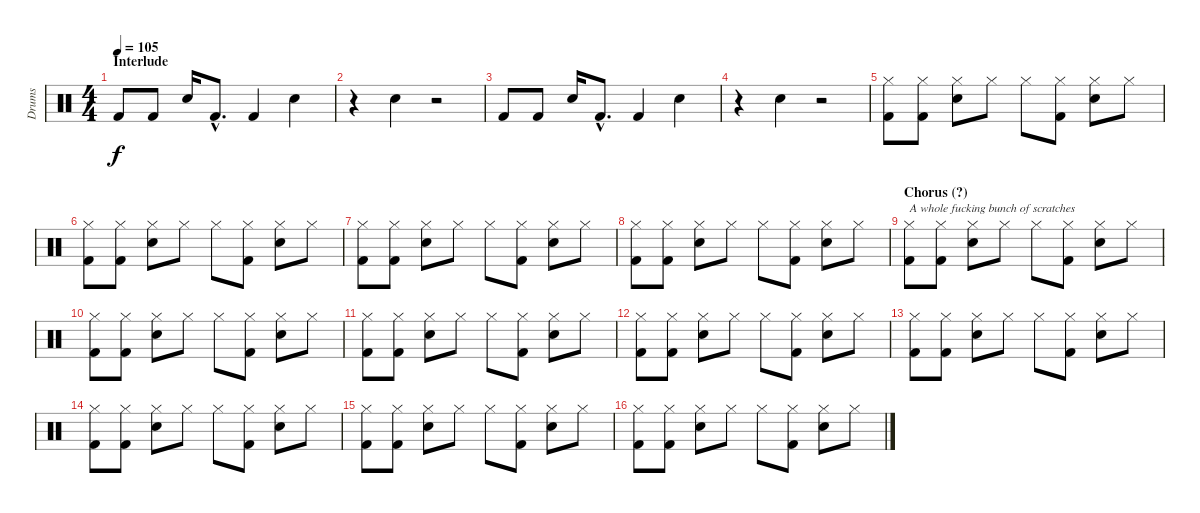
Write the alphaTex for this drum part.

\track ("Drums" "Drums") {instrument percussion}
\staff {score}
\articulation defaults
\ts (4 4)
\section ("" "Interlude")
\tempo 105
\clef neutral
\ks c "Kick (hit) 2".8{dy f} "Kick (hit) 2".8 "Electric Snare (hit)".16 "Kick (hit) 2"{hac}.8{d} "Kick (hit) 2".4 "Electric Snare (hit)".4
|
r.4 "Electric Snare (hit)".4 r.2 |
"Kick (hit) 2".8 "Kick (hit) 2".8 "Electric Snare (hit)".16 "Kick (hit) 2"{hac}.8{d} "Kick (hit) 2".4 "Electric Snare (hit)".4 |
r.4 "Electric Snare (hit)".4 r.2 |
("Hi-Hat (closed)" "Kick (hit) 2").8 ("Hi-Hat (closed)" "Kick (hit) 2").8 ("Hi-Hat (closed)" "Snare (hit) 2").8 "Hi-Hat (closed)".8 "Hi-Hat (closed)".8 ("Hi-Hat (closed)" "Kick (hit) 2").8 ("Hi-Hat (closed)" "Snare (hit) 2").8 "Hi-Hat (closed)".8 |
("Hi-Hat (closed)" "Kick (hit) 2").8 ("Hi-Hat (closed)" "Kick (hit) 2").8 ("Hi-Hat (closed)" "Snare (hit) 2").8 "Hi-Hat (closed)".8 "Hi-Hat (closed)".8 ("Hi-Hat (closed)" "Kick (hit) 2").8 ("Hi-Hat (closed)" "Snare (hit) 2").8 "Hi-Hat (closed)".8 |
("Hi-Hat (closed)" "Kick (hit) 2").8 ("Hi-Hat (closed)" "Kick (hit) 2").8 ("Hi-Hat (closed)" "Snare (hit) 2").8 "Hi-Hat (closed)".8 "Hi-Hat (closed)".8 ("Hi-Hat (closed)" "Kick (hit) 2").8 ("Hi-Hat (closed)" "Snare (hit) 2").8 "Hi-Hat (closed)".8 |
("Hi-Hat (closed)" "Kick (hit) 2").8 ("Hi-Hat (closed)" "Kick (hit) 2").8 ("Hi-Hat (closed)" "Snare (hit) 2").8 "Hi-Hat (closed)".8 "Hi-Hat (closed)".8 ("Hi-Hat (closed)" "Kick (hit) 2").8 ("Hi-Hat (closed)" "Snare (hit) 2").8 "Hi-Hat (closed)".8 |
\section ("" "Chorus (?)")
("Hi-Hat (closed)" "Kick (hit) 2").8{txt "A whole fucking bunch of scratches"} ("Hi-Hat (closed)" "Kick (hit) 2").8 ("Hi-Hat (closed)" "Snare (hit) 2").8 "Hi-Hat (closed)".8 "Hi-Hat (closed)".8 ("Hi-Hat (closed)" "Kick (hit) 2").8 ("Hi-Hat (closed)" "Snare (hit) 2").8 "Hi-Hat (closed)".8 |
("Hi-Hat (closed)" "Kick (hit) 2").8 ("Hi-Hat (closed)" "Kick (hit) 2").8 ("Hi-Hat (closed)" "Snare (hit) 2").8 "Hi-Hat (closed)".8 "Hi-Hat (closed)".8 ("Hi-Hat (closed)" "Kick (hit) 2").8 ("Hi-Hat (closed)" "Snare (hit) 2").8 "Hi-Hat (closed)".8 |
("Hi-Hat (closed)" "Kick (hit) 2").8 ("Hi-Hat (closed)" "Kick (hit) 2").8 ("Hi-Hat (closed)" "Snare (hit) 2").8 "Hi-Hat (closed)".8 "Hi-Hat (closed)".8 ("Hi-Hat (closed)" "Kick (hit) 2").8 ("Hi-Hat (closed)" "Snare (hit) 2").8 "Hi-Hat (closed)".8 |
("Hi-Hat (closed)" "Kick (hit) 2").8 ("Hi-Hat (closed)" "Kick (hit) 2").8 ("Hi-Hat (closed)" "Snare (hit) 2").8 "Hi-Hat (closed)".8 "Hi-Hat (closed)".8 ("Hi-Hat (closed)" "Kick (hit) 2").8 ("Hi-Hat (closed)" "Snare (hit) 2").8 "Hi-Hat (closed)".8 |
("Hi-Hat (closed)" "Kick (hit) 2").8 ("Hi-Hat (closed)" "Kick (hit) 2").8 ("Hi-Hat (closed)" "Snare (hit) 2").8 "Hi-Hat (closed)".8 "Hi-Hat (closed)".8 ("Hi-Hat (closed)" "Kick (hit) 2").8 ("Hi-Hat (closed)" "Snare (hit) 2").8 "Hi-Hat (closed)".8 |
("Hi-Hat (closed)" "Kick (hit) 2").8 ("Hi-Hat (closed)" "Kick (hit) 2").8 ("Hi-Hat (closed)" "Snare (hit) 2").8 "Hi-Hat (closed)".8 "Hi-Hat (closed)".8 ("Hi-Hat (closed)" "Kick (hit) 2").8 ("Hi-Hat (closed)" "Snare (hit) 2").8 "Hi-Hat (closed)".8 |
("Hi-Hat (closed)" "Kick (hit) 2").8 ("Hi-Hat (closed)" "Kick (hit) 2").8 ("Hi-Hat (closed)" "Snare (hit) 2").8 "Hi-Hat (closed)".8 "Hi-Hat (closed)".8 ("Hi-Hat (closed)" "Kick (hit) 2").8 ("Hi-Hat (closed)" "Snare (hit) 2").8 "Hi-Hat (closed)".8 |
("Hi-Hat (closed)" "Kick (hit) 2").8 ("Hi-Hat (closed)" "Kick (hit) 2").8 ("Hi-Hat (closed)" "Snare (hit) 2").8 "Hi-Hat (closed)".8 "Hi-Hat (closed)".8 ("Hi-Hat (closed)" "Kick (hit) 2").8 ("Hi-Hat (closed)" "Snare (hit) 2").8 "Hi-Hat (closed)".8
